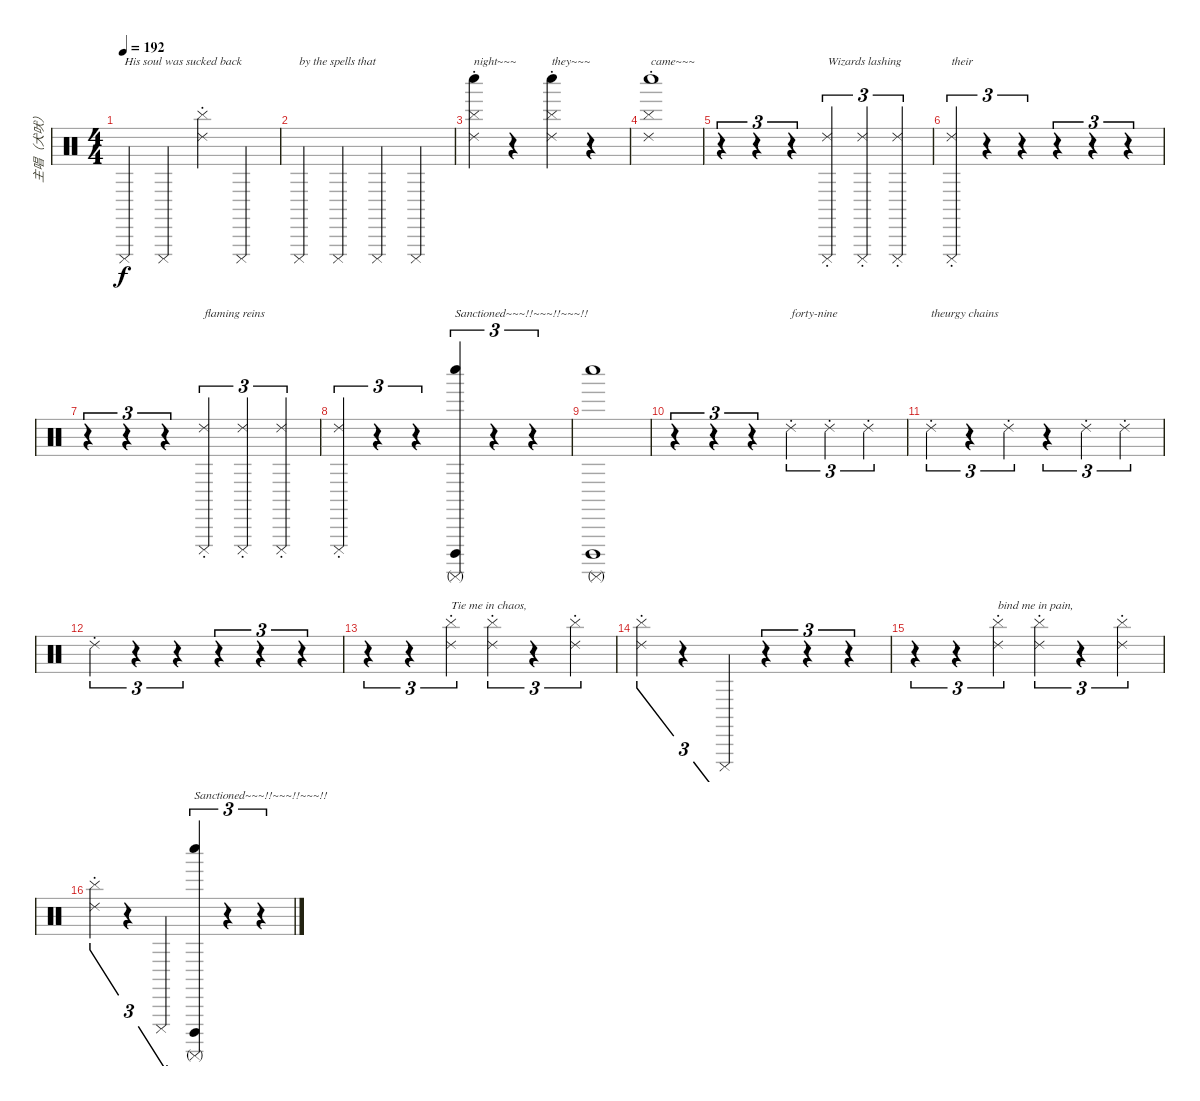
\track ("主唱（犬吠）" "主唱（犬吠）") {instrument percussion}
\staff {score}
\articulation defaults
\ts (4 4)
\tempo 192
\clef neutral
\ks c "Cuica (mute)".4{txt "His soul was sucked back" dy f} "Cuica (mute)".4
("Ride (choke) 2" "Cymbal (hit)").4 "Cuica (mute)".4 |
"Cuica (mute)".4{txt "by the spells that"} "Cuica (mute)".4 "Cuica (mute)".4 "Cuica (mute)".4 |
("Cymbal (hit)" "Ride (choke) 2" "Whistle low (hit)").4{txt "night~~~"} r.4 ("Cymbal (hit)" "Ride (choke) 2" "Whistle low (hit)").4{txt "they~~~"} r.4 |
("Cymbal (hit)" "Ride (choke) 2" "Whistle low (hit)").1{txt "came~~~"} |
r.4{tu (3 2)} r.4{tu (3 2)} r.4{tu (3 2)} ("Ride (choke) 2" "Cuica (mute)").4{tu (3 2) txt "Wizards lashing"} ("Ride (choke) 2" "Cuica (mute)").4{tu (3 2)} ("Ride (choke) 2" "Cuica (mute)").4{tu (3 2)} |
("Ride (choke) 2" "Cuica (mute)").4{tu (3 2) txt "their"} r.4{tu (3 2)} r.4{tu (3 2)} r.4{tu (3 2)} r.4{tu (3 2)} r.4{tu (3 2)} |
r.4{tu (3 2)} r.4{tu (3 2)} r.4{tu (3 2)} ("Ride (choke) 2" "Cuica (mute)").4{tu (3 2) txt "flaming reins"} ("Ride (choke) 2" "Cuica (mute)").4{tu (3 2)} ("Ride (choke) 2" "Cuica (mute)").4{tu (3 2)} |
("Ride (choke) 2" "Cuica (mute)").4{tu (3 2)} r.4{tu (3 2)} r.4{tu (3 2)} ("Surdo (mute)" "Whistle low (hit)" "Cuica (open)").4{tu (3 2) txt "Sanctioned~~~!!~~~!!~~~!!"} r.4{tu (3 2)} r.4{tu (3 2)} |
("Surdo (mute)" "Whistle low (hit)" "Cuica (open)").1 |
r.4{tu (3 2)} r.4{tu (3 2)} r.4{tu (3 2)} "Ride (choke) 2".4{tu (3 2) txt "forty-nine"} "Ride (choke) 2".4{tu (3 2)} "Ride (choke) 2".4{tu (3 2)} |
"Ride (choke) 2".4{tu (3 2) txt "theurgy chains"} r.4{tu (3 2)} "Ride (choke) 2".4{tu (3 2)} r.4{tu (3 2)} "Ride (choke) 2".4{tu (3 2)} "Ride (choke) 2".4{tu (3 2)} |
"Ride (choke) 2".4{tu (3 2)} r.4{tu (3 2)} r.4{tu (3 2)} r.4{tu (3 2)} r.4{tu (3 2)} r.4{tu (3 2)} |
r.4{tu (3 2)} r.4{tu (3 2)} ("Ride (choke) 2" "Cymbal (hit)").4{tu (3 2) txt "Tie me in chaos,"} ("Ride (choke) 2" "Cymbal (hit)").4{tu (3 2)} r.4{tu (3 2)} ("Ride (choke) 2" "Cymbal (hit)").4{tu (3 2)} |
("Ride (choke) 2" "Cymbal (hit)").4{tu (3 2)} r.4{tu (3 2)} "Cuica (mute)".4{tu (3 2)} r.4{tu (3 2)} r.4{tu (3 2)} r.4{tu (3 2)} |
r.4{tu (3 2)} r.4{tu (3 2)} ("Ride (choke) 2" "Cymbal (hit)").4{tu (3 2) txt "bind me in pain, "} ("Ride (choke) 2" "Cymbal (hit)").4{tu (3 2)} r.4{tu (3 2)} ("Ride (choke) 2" "Cymbal (hit)").4{tu (3 2)} |
("Ride (choke) 2" "Cymbal (hit)").4{tu (3 2)} r.4{tu (3 2)} "Cuica (mute)".4{tu (3 2)} ("Surdo (mute)" "Whistle low (hit)" "Cuica (open)").4{tu (3 2) txt "Sanctioned~~~!!~~~!!~~~!!"} r.4{tu (3 2)} r.4{tu (3 2)}
